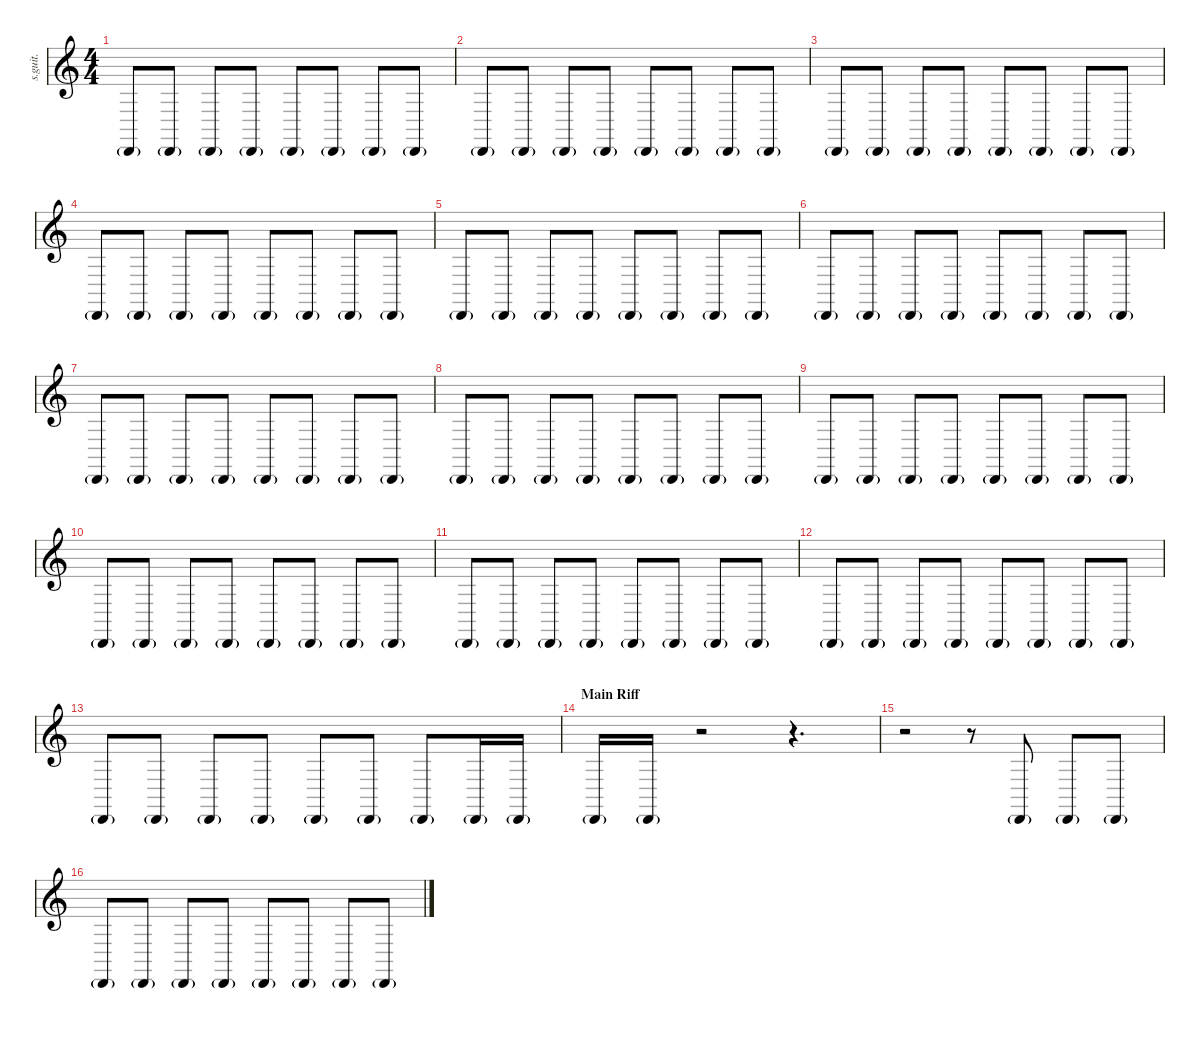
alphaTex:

\defaultSystemsLayout 4
\hideDynamics
\bracketExtendMode nobrackets
\track ("Shaker" "s.guit.") {instrument percussion}
\staff {score}
\articulation defaults
\ts (4 4)
\tempo (124 hide)
\clef g2
\ks c "Cabasa (hit)"{g}.8{lyrics (0 "") lyrics (1 "") lyrics (2 "") lyrics (3 "") lyrics (4 "") dy p} "Cabasa (hit)"{g}.8{lyrics (0 "") lyrics (1 "") lyrics (2 "") lyrics (3 "") lyrics (4 "") dy pp} "Cabasa (hit)"{g}.8{lyrics (0 "") lyrics (1 "") lyrics (2 "") lyrics (3 "") lyrics (4 "") dy p} "Cabasa (hit)"{g}.8{lyrics (0 "") lyrics (1 "") lyrics (2 "") lyrics (3 "") lyrics (4 "") dy pp} "Cabasa (hit)"{g}.8{lyrics (0 "") lyrics (1 "") lyrics (2 "") lyrics (3 "") lyrics (4 "") dy p} "Cabasa (hit)"{g}.8{lyrics (0 "") lyrics (1 "") lyrics (2 "") lyrics (3 "") lyrics (4 "") dy pp} "Cabasa (hit)"{g}.8{lyrics (0 "") lyrics (1 "") lyrics (2 "") lyrics (3 "") lyrics (4 "") dy p} "Cabasa (hit)"{g}.8{lyrics (0 "") lyrics (1 "") lyrics (2 "") lyrics (3 "") lyrics (4 "") dy pp}
|
"Cabasa (hit)"{g}.8{lyrics (0 "") lyrics (1 "") lyrics (2 "") lyrics (3 "") lyrics (4 "") dy p} "Cabasa (hit)"{g}.8{lyrics (0 "") lyrics (1 "") lyrics (2 "") lyrics (3 "") lyrics (4 "") dy pp} "Cabasa (hit)"{g}.8{lyrics (0 "") lyrics (1 "") lyrics (2 "") lyrics (3 "") lyrics (4 "") dy p} "Cabasa (hit)"{g}.8{lyrics (0 "") lyrics (1 "") lyrics (2 "") lyrics (3 "") lyrics (4 "") dy pp} "Cabasa (hit)"{g}.8{lyrics (0 "") lyrics (1 "") lyrics (2 "") lyrics (3 "") lyrics (4 "") dy p} "Cabasa (hit)"{g}.8{lyrics (0 "") lyrics (1 "") lyrics (2 "") lyrics (3 "") lyrics (4 "") dy pp} "Cabasa (hit)"{g}.8{lyrics (0 "") lyrics (1 "") lyrics (2 "") lyrics (3 "") lyrics (4 "") dy p} "Cabasa (hit)"{g}.8{lyrics (0 "") lyrics (1 "") lyrics (2 "") lyrics (3 "") lyrics (4 "") dy pp} |
"Cabasa (hit)"{g}.8{lyrics (0 "") lyrics (1 "") lyrics (2 "") lyrics (3 "") lyrics (4 "") dy p} "Cabasa (hit)"{g}.8{lyrics (0 "") lyrics (1 "") lyrics (2 "") lyrics (3 "") lyrics (4 "") dy pp} "Cabasa (hit)"{g}.8{lyrics (0 "") lyrics (1 "") lyrics (2 "") lyrics (3 "") lyrics (4 "") dy p} "Cabasa (hit)"{g}.8{lyrics (0 "") lyrics (1 "") lyrics (2 "") lyrics (3 "") lyrics (4 "") dy pp} "Cabasa (hit)"{g}.8{lyrics (0 "") lyrics (1 "") lyrics (2 "") lyrics (3 "") lyrics (4 "") dy p} "Cabasa (hit)"{g}.8{lyrics (0 "") lyrics (1 "") lyrics (2 "") lyrics (3 "") lyrics (4 "") dy pp} "Cabasa (hit)"{g}.8{lyrics (0 "") lyrics (1 "") lyrics (2 "") lyrics (3 "") lyrics (4 "") dy p} "Cabasa (hit)"{g}.8{lyrics (0 "") lyrics (1 "") lyrics (2 "") lyrics (3 "") lyrics (4 "") dy pp} |
"Cabasa (hit)"{g}.8{lyrics (0 "") lyrics (1 "") lyrics (2 "") lyrics (3 "") lyrics (4 "") dy p} "Cabasa (hit)"{g}.8{lyrics (0 "") lyrics (1 "") lyrics (2 "") lyrics (3 "") lyrics (4 "") dy pp} "Cabasa (hit)"{g}.8{lyrics (0 "") lyrics (1 "") lyrics (2 "") lyrics (3 "") lyrics (4 "") dy p} "Cabasa (hit)"{g}.8{lyrics (0 "") lyrics (1 "") lyrics (2 "") lyrics (3 "") lyrics (4 "") dy pp} "Cabasa (hit)"{g}.8{lyrics (0 "") lyrics (1 "") lyrics (2 "") lyrics (3 "") lyrics (4 "") dy p} "Cabasa (hit)"{g}.8{lyrics (0 "") lyrics (1 "") lyrics (2 "") lyrics (3 "") lyrics (4 "") dy pp} "Cabasa (hit)"{g}.8{lyrics (0 "") lyrics (1 "") lyrics (2 "") lyrics (3 "") lyrics (4 "") dy p} "Cabasa (hit)"{g}.8{lyrics (0 "") lyrics (1 "") lyrics (2 "") lyrics (3 "") lyrics (4 "") dy pp} |
"Cabasa (hit)"{g}.8{lyrics (0 "") lyrics (1 "") lyrics (2 "") lyrics (3 "") lyrics (4 "") dy p} "Cabasa (hit)"{g}.8{lyrics (0 "") lyrics (1 "") lyrics (2 "") lyrics (3 "") lyrics (4 "") dy pp} "Cabasa (hit)"{g}.8{lyrics (0 "") lyrics (1 "") lyrics (2 "") lyrics (3 "") lyrics (4 "") dy p} "Cabasa (hit)"{g}.8{lyrics (0 "") lyrics (1 "") lyrics (2 "") lyrics (3 "") lyrics (4 "") dy pp} "Cabasa (hit)"{g}.8{lyrics (0 "") lyrics (1 "") lyrics (2 "") lyrics (3 "") lyrics (4 "") dy p} "Cabasa (hit)"{g}.8{lyrics (0 "") lyrics (1 "") lyrics (2 "") lyrics (3 "") lyrics (4 "") dy pp} "Cabasa (hit)"{g}.8{lyrics (0 "") lyrics (1 "") lyrics (2 "") lyrics (3 "") lyrics (4 "") dy p} "Cabasa (hit)"{g}.8{lyrics (0 "") lyrics (1 "") lyrics (2 "") lyrics (3 "") lyrics (4 "") dy pp} |
"Cabasa (hit)"{g}.8{lyrics (0 "") lyrics (1 "") lyrics (2 "") lyrics (3 "") lyrics (4 "") dy p} "Cabasa (hit)"{g}.8{lyrics (0 "") lyrics (1 "") lyrics (2 "") lyrics (3 "") lyrics (4 "") dy pp} "Cabasa (hit)"{g}.8{lyrics (0 "") lyrics (1 "") lyrics (2 "") lyrics (3 "") lyrics (4 "") dy p} "Cabasa (hit)"{g}.8{lyrics (0 "") lyrics (1 "") lyrics (2 "") lyrics (3 "") lyrics (4 "") dy pp} "Cabasa (hit)"{g}.8{lyrics (0 "") lyrics (1 "") lyrics (2 "") lyrics (3 "") lyrics (4 "") dy p} "Cabasa (hit)"{g}.8{lyrics (0 "") lyrics (1 "") lyrics (2 "") lyrics (3 "") lyrics (4 "") dy pp} "Cabasa (hit)"{g}.8{lyrics (0 "") lyrics (1 "") lyrics (2 "") lyrics (3 "") lyrics (4 "") dy p} "Cabasa (hit)"{g}.8{lyrics (0 "") lyrics (1 "") lyrics (2 "") lyrics (3 "") lyrics (4 "") dy pp} |
"Cabasa (hit)"{g}.8{lyrics (0 "") lyrics (1 "") lyrics (2 "") lyrics (3 "") lyrics (4 "") dy p} "Cabasa (hit)"{g}.8{lyrics (0 "") lyrics (1 "") lyrics (2 "") lyrics (3 "") lyrics (4 "") dy pp} "Cabasa (hit)"{g}.8{lyrics (0 "") lyrics (1 "") lyrics (2 "") lyrics (3 "") lyrics (4 "") dy p} "Cabasa (hit)"{g}.8{lyrics (0 "") lyrics (1 "") lyrics (2 "") lyrics (3 "") lyrics (4 "") dy pp} "Cabasa (hit)"{g}.8{lyrics (0 "") lyrics (1 "") lyrics (2 "") lyrics (3 "") lyrics (4 "") dy p} "Cabasa (hit)"{g}.8{lyrics (0 "") lyrics (1 "") lyrics (2 "") lyrics (3 "") lyrics (4 "") dy pp} "Cabasa (hit)"{g}.8{lyrics (0 "") lyrics (1 "") lyrics (2 "") lyrics (3 "") lyrics (4 "") dy p} "Cabasa (hit)"{g}.8{lyrics (0 "") lyrics (1 "") lyrics (2 "") lyrics (3 "") lyrics (4 "") dy pp} |
"Cabasa (hit)"{g}.8{lyrics (0 "") lyrics (1 "") lyrics (2 "") lyrics (3 "") lyrics (4 "") dy p} "Cabasa (hit)"{g}.8{lyrics (0 "") lyrics (1 "") lyrics (2 "") lyrics (3 "") lyrics (4 "") dy pp} "Cabasa (hit)"{g}.8{lyrics (0 "") lyrics (1 "") lyrics (2 "") lyrics (3 "") lyrics (4 "") dy p} "Cabasa (hit)"{g}.8{lyrics (0 "") lyrics (1 "") lyrics (2 "") lyrics (3 "") lyrics (4 "") dy pp} "Cabasa (hit)"{g}.8{lyrics (0 "") lyrics (1 "") lyrics (2 "") lyrics (3 "") lyrics (4 "") dy p} "Cabasa (hit)"{g}.8{lyrics (0 "") lyrics (1 "") lyrics (2 "") lyrics (3 "") lyrics (4 "") dy pp} "Cabasa (hit)"{g}.8{lyrics (0 "") lyrics (1 "") lyrics (2 "") lyrics (3 "") lyrics (4 "") dy p} "Cabasa (hit)"{g}.8{lyrics (0 "") lyrics (1 "") lyrics (2 "") lyrics (3 "") lyrics (4 "") dy pp} |
"Cabasa (hit)"{g}.8{lyrics (0 "") lyrics (1 "") lyrics (2 "") lyrics (3 "") lyrics (4 "") dy p} "Cabasa (hit)"{g}.8{lyrics (0 "") lyrics (1 "") lyrics (2 "") lyrics (3 "") lyrics (4 "") dy pp} "Cabasa (hit)"{g}.8{lyrics (0 "") lyrics (1 "") lyrics (2 "") lyrics (3 "") lyrics (4 "") dy p} "Cabasa (hit)"{g}.8{lyrics (0 "") lyrics (1 "") lyrics (2 "") lyrics (3 "") lyrics (4 "") dy pp} "Cabasa (hit)"{g}.8{lyrics (0 "") lyrics (1 "") lyrics (2 "") lyrics (3 "") lyrics (4 "") dy p} "Cabasa (hit)"{g}.8{lyrics (0 "") lyrics (1 "") lyrics (2 "") lyrics (3 "") lyrics (4 "") dy pp} "Cabasa (hit)"{g}.8{lyrics (0 "") lyrics (1 "") lyrics (2 "") lyrics (3 "") lyrics (4 "") dy p} "Cabasa (hit)"{g}.8{lyrics (0 "") lyrics (1 "") lyrics (2 "") lyrics (3 "") lyrics (4 "") dy pp} |
"Cabasa (hit)"{g}.8{lyrics (0 "") lyrics (1 "") lyrics (2 "") lyrics (3 "") lyrics (4 "") dy p} "Cabasa (hit)"{g}.8{lyrics (0 "") lyrics (1 "") lyrics (2 "") lyrics (3 "") lyrics (4 "") dy pp} "Cabasa (hit)"{g}.8{lyrics (0 "") lyrics (1 "") lyrics (2 "") lyrics (3 "") lyrics (4 "") dy p} "Cabasa (hit)"{g}.8{lyrics (0 "") lyrics (1 "") lyrics (2 "") lyrics (3 "") lyrics (4 "") dy pp} "Cabasa (hit)"{g}.8{lyrics (0 "") lyrics (1 "") lyrics (2 "") lyrics (3 "") lyrics (4 "") dy p} "Cabasa (hit)"{g}.8{lyrics (0 "") lyrics (1 "") lyrics (2 "") lyrics (3 "") lyrics (4 "") dy pp} "Cabasa (hit)"{g}.8{lyrics (0 "") lyrics (1 "") lyrics (2 "") lyrics (3 "") lyrics (4 "") dy p} "Cabasa (hit)"{g}.8{lyrics (0 "") lyrics (1 "") lyrics (2 "") lyrics (3 "") lyrics (4 "") dy pp} |
"Cabasa (hit)"{g}.8{lyrics (0 "") lyrics (1 "") lyrics (2 "") lyrics (3 "") lyrics (4 "") dy p} "Cabasa (hit)"{g}.8{lyrics (0 "") lyrics (1 "") lyrics (2 "") lyrics (3 "") lyrics (4 "") dy pp} "Cabasa (hit)"{g}.8{lyrics (0 "") lyrics (1 "") lyrics (2 "") lyrics (3 "") lyrics (4 "") dy p} "Cabasa (hit)"{g}.8{lyrics (0 "") lyrics (1 "") lyrics (2 "") lyrics (3 "") lyrics (4 "") dy pp} "Cabasa (hit)"{g}.8{lyrics (0 "") lyrics (1 "") lyrics (2 "") lyrics (3 "") lyrics (4 "") dy p} "Cabasa (hit)"{g}.8{lyrics (0 "") lyrics (1 "") lyrics (2 "") lyrics (3 "") lyrics (4 "") dy pp} "Cabasa (hit)"{g}.8{lyrics (0 "") lyrics (1 "") lyrics (2 "") lyrics (3 "") lyrics (4 "") dy p} "Cabasa (hit)"{g}.8{lyrics (0 "") lyrics (1 "") lyrics (2 "") lyrics (3 "") lyrics (4 "") dy pp} |
"Cabasa (hit)"{g}.8{lyrics (0 "") lyrics (1 "") lyrics (2 "") lyrics (3 "") lyrics (4 "") dy p} "Cabasa (hit)"{g}.8{lyrics (0 "") lyrics (1 "") lyrics (2 "") lyrics (3 "") lyrics (4 "") dy pp} "Cabasa (hit)"{g}.8{lyrics (0 "") lyrics (1 "") lyrics (2 "") lyrics (3 "") lyrics (4 "") dy p} "Cabasa (hit)"{g}.8{lyrics (0 "") lyrics (1 "") lyrics (2 "") lyrics (3 "") lyrics (4 "") dy pp} "Cabasa (hit)"{g}.8{lyrics (0 "") lyrics (1 "") lyrics (2 "") lyrics (3 "") lyrics (4 "") dy p} "Cabasa (hit)"{g}.8{lyrics (0 "") lyrics (1 "") lyrics (2 "") lyrics (3 "") lyrics (4 "") dy pp} "Cabasa (hit)"{g}.8{lyrics (0 "") lyrics (1 "") lyrics (2 "") lyrics (3 "") lyrics (4 "") dy p} "Cabasa (hit)"{g}.8{lyrics (0 "") lyrics (1 "") lyrics (2 "") lyrics (3 "") lyrics (4 "") dy pp} |
"Cabasa (hit)"{g}.8{lyrics (0 "") lyrics (1 "") lyrics (2 "") lyrics (3 "") lyrics (4 "") dy p} "Cabasa (hit)"{g}.8{lyrics (0 "") lyrics (1 "") lyrics (2 "") lyrics (3 "") lyrics (4 "") dy pp} "Cabasa (hit)"{g}.8{lyrics (0 "") lyrics (1 "") lyrics (2 "") lyrics (3 "") lyrics (4 "") dy p} "Cabasa (hit)"{g}.8{lyrics (0 "") lyrics (1 "") lyrics (2 "") lyrics (3 "") lyrics (4 "") dy pp} "Cabasa (hit)"{g}.8{lyrics (0 "") lyrics (1 "") lyrics (2 "") lyrics (3 "") lyrics (4 "") dy p} "Cabasa (hit)"{g}.8{lyrics (0 "") lyrics (1 "") lyrics (2 "") lyrics (3 "") lyrics (4 "") dy pp} "Cabasa (hit)"{g}.8{lyrics (0 "") lyrics (1 "") lyrics (2 "") lyrics (3 "") lyrics (4 "") dy p} "Cabasa (hit)"{g}.16{lyrics (0 "") lyrics (1 "") lyrics (2 "") lyrics (3 "") lyrics (4 "") dy pp} "Cabasa (hit)"{g}.16{lyrics (0 "") lyrics (1 "") lyrics (2 "") lyrics (3 "") lyrics (4 "")} |
\section ("" "Main Riff")
"Cabasa (hit)"{g}.16{lyrics (0 "") lyrics (1 "") lyrics (2 "") lyrics (3 "") lyrics (4 "")} "Cabasa (hit)"{g}.16{lyrics (0 "") lyrics (1 "") lyrics (2 "") lyrics (3 "") lyrics (4 "")} r.2 r.4{d} |
r.2 r.8 "Cabasa (hit)"{g}.8{lyrics (0 "") lyrics (1 "") lyrics (2 "") lyrics (3 "") lyrics (4 "")} "Cabasa (hit)"{g}.8{lyrics (0 "") lyrics (1 "") lyrics (2 "") lyrics (3 "") lyrics (4 "") dy p} "Cabasa (hit)"{g}.8{lyrics (0 "") lyrics (1 "") lyrics (2 "") lyrics (3 "") lyrics (4 "") dy pp} |
"Cabasa (hit)"{g}.8{lyrics (0 "") lyrics (1 "") lyrics (2 "") lyrics (3 "") lyrics (4 "") dy p} "Cabasa (hit)"{g}.8{lyrics (0 "") lyrics (1 "") lyrics (2 "") lyrics (3 "") lyrics (4 "") dy pp} "Cabasa (hit)"{g}.8{lyrics (0 "") lyrics (1 "") lyrics (2 "") lyrics (3 "") lyrics (4 "") dy p} "Cabasa (hit)"{g}.8{lyrics (0 "") lyrics (1 "") lyrics (2 "") lyrics (3 "") lyrics (4 "") dy pp} "Cabasa (hit)"{g}.8{lyrics (0 "") lyrics (1 "") lyrics (2 "") lyrics (3 "") lyrics (4 "") dy p} "Cabasa (hit)"{g}.8{lyrics (0 "") lyrics (1 "") lyrics (2 "") lyrics (3 "") lyrics (4 "") dy pp} "Cabasa (hit)"{g}.8{lyrics (0 "") lyrics (1 "") lyrics (2 "") lyrics (3 "") lyrics (4 "") dy p} "Cabasa (hit)"{g}.8{lyrics (0 "") lyrics (1 "") lyrics (2 "") lyrics (3 "") lyrics (4 "") dy pp}
